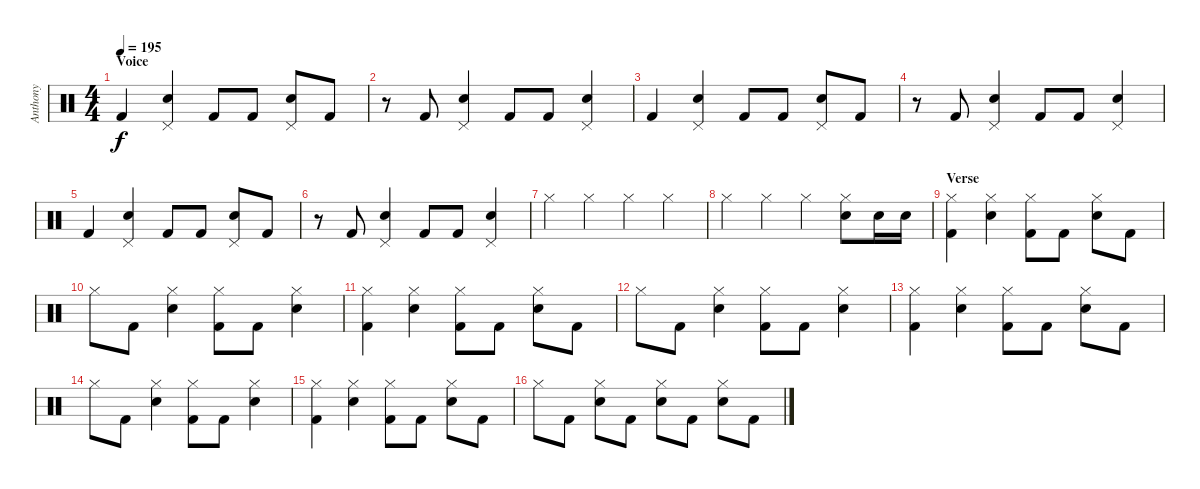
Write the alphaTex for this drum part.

\track ("Anthony" "Anthony") {instrument percussion}
\staff {score}
\articulation defaults
\ts (4 4)
\section ("" "Voice")
\tempo 195
\clef neutral
\ks c "Kick (hit) 2".4{dy f}
("Pedal Hi-Hat (hit)" "Electric Snare (hit)").4 "Kick (hit) 2".8 "Kick (hit) 2".8 ("Pedal Hi-Hat (hit)" "Electric Snare (hit)").8 "Kick (hit) 2".8 |
r.8 "Kick (hit) 2".8 ("Pedal Hi-Hat (hit)" "Electric Snare (hit)").4 "Kick (hit) 2".8 "Kick (hit) 2".8 ("Pedal Hi-Hat (hit)" "Electric Snare (hit)").4 |
"Kick (hit) 2".4 ("Pedal Hi-Hat (hit)" "Electric Snare (hit)").4 "Kick (hit) 2".8 "Kick (hit) 2".8 ("Pedal Hi-Hat (hit)" "Electric Snare (hit)").8 "Kick (hit) 2".8 |
r.8 "Kick (hit) 2".8 ("Pedal Hi-Hat (hit)" "Electric Snare (hit)").4 "Kick (hit) 2".8 "Kick (hit) 2".8 ("Pedal Hi-Hat (hit)" "Electric Snare (hit)").4 |
"Kick (hit) 2".4 ("Pedal Hi-Hat (hit)" "Electric Snare (hit)").4 "Kick (hit) 2".8 "Kick (hit) 2".8 ("Pedal Hi-Hat (hit)" "Electric Snare (hit)").8 "Kick (hit) 2".8 |
r.8 "Kick (hit) 2".8 ("Pedal Hi-Hat (hit)" "Electric Snare (hit)").4 "Kick (hit) 2".8 "Kick (hit) 2".8 ("Pedal Hi-Hat (hit)" "Electric Snare (hit)").4 |
"Hi-Hat (closed)".4 "Hi-Hat (closed)".4 "Hi-Hat (closed)".4 "Hi-Hat (closed)".4 |
"Hi-Hat (closed)".4 "Hi-Hat (closed)".4 "Hi-Hat (closed)".4 ("Hi-Hat (closed)" "Electric Snare (hit)").8 "Electric Snare (hit)".16 "Electric Snare (hit)".16 |
\section ("" "Verse")
("Hi-Hat (closed)" "Kick (hit) 2").4 ("Hi-Hat (closed)" "Electric Snare (hit)").4 ("Hi-Hat (closed)" "Kick (hit) 2").8 "Kick (hit) 2".8 ("Hi-Hat (closed)" "Electric Snare (hit)").8 "Kick (hit) 2".8 |
"Hi-Hat (closed)".8 "Kick (hit) 2".8 ("Hi-Hat (closed)" "Electric Snare (hit)").4 ("Hi-Hat (closed)" "Kick (hit) 2").8 "Kick (hit) 2".8 ("Hi-Hat (closed)" "Electric Snare (hit)").4 |
("Hi-Hat (closed)" "Kick (hit) 2").4 ("Hi-Hat (closed)" "Electric Snare (hit)").4 ("Hi-Hat (closed)" "Kick (hit) 2").8 "Kick (hit) 2".8 ("Hi-Hat (closed)" "Electric Snare (hit)").8 "Kick (hit) 2".8 |
"Hi-Hat (closed)".8 "Kick (hit) 2".8 ("Hi-Hat (closed)" "Electric Snare (hit)").4 ("Hi-Hat (closed)" "Kick (hit) 2").8 "Kick (hit) 2".8 ("Hi-Hat (closed)" "Electric Snare (hit)").4 |
("Hi-Hat (closed)" "Kick (hit) 2").4 ("Hi-Hat (closed)" "Electric Snare (hit)").4 ("Hi-Hat (closed)" "Kick (hit) 2").8 "Kick (hit) 2".8 ("Hi-Hat (closed)" "Electric Snare (hit)").8 "Kick (hit) 2".8 |
"Hi-Hat (closed)".8 "Kick (hit) 2".8 ("Hi-Hat (closed)" "Electric Snare (hit)").4 ("Hi-Hat (closed)" "Kick (hit) 2").8 "Kick (hit) 2".8 ("Hi-Hat (closed)" "Electric Snare (hit)").4 |
("Hi-Hat (closed)" "Kick (hit) 2").4 ("Hi-Hat (closed)" "Electric Snare (hit)").4 ("Hi-Hat (closed)" "Kick (hit) 2").8 "Kick (hit) 2".8 ("Hi-Hat (closed)" "Electric Snare (hit)").8 "Kick (hit) 2".8 |
"Hi-Hat (closed)".8 "Kick (hit) 2".8 ("Hi-Hat (closed)" "Electric Snare (hit)").8 "Kick (hit) 2".8 ("Hi-Hat (closed)" "Electric Snare (hit)").8 "Kick (hit) 2".8 ("Hi-Hat (closed)" "Electric Snare (hit)").8 "Kick (hit) 2".8
